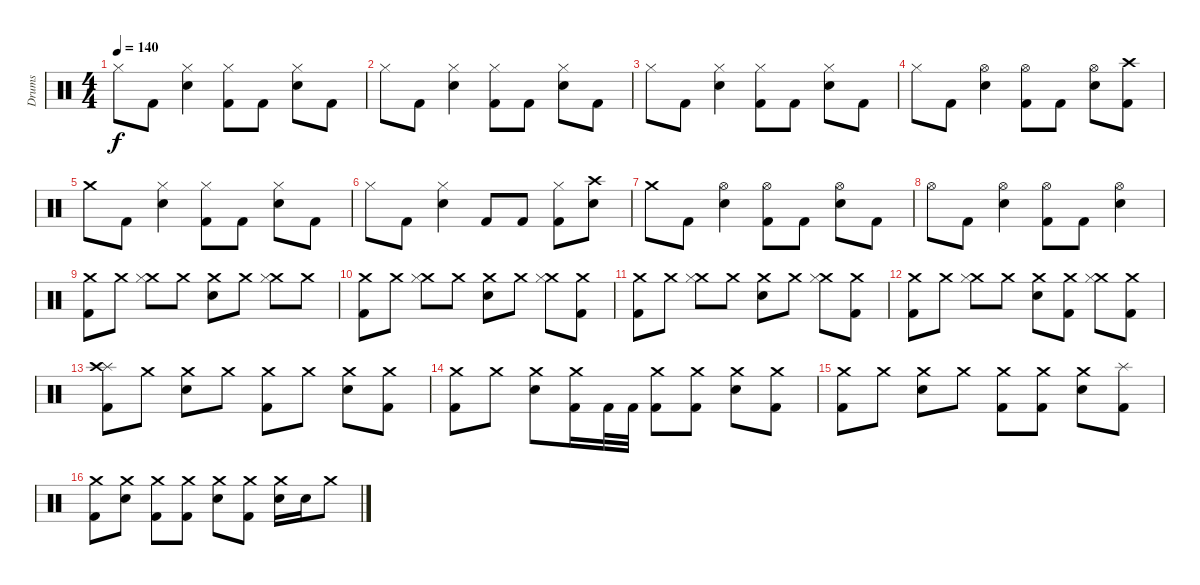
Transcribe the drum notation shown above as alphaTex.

\track ("Drums" "Drums") {instrument percussion}
\staff {score}
\articulation defaults
\ts (4 4)
\tempo 140
\clef neutral
\ks c "Hi-Hat (closed)".8{dy f} "Kick (hit) 2".8
("Hi-Hat (closed)" "Snare (hit) 2").4 ("Hi-Hat (closed)" "Kick (hit) 2").8 "Kick (hit) 2".8 ("Hi-Hat (closed)" "Snare (hit) 2").8 "Kick (hit) 2".8 |
"Hi-Hat (closed)".8 "Kick (hit) 2".8 ("Hi-Hat (closed)" "Snare (hit) 2").4 ("Hi-Hat (closed)" "Kick (hit) 2").8 "Kick (hit) 2".8 ("Hi-Hat (closed)" "Snare (hit) 2").8 "Kick (hit) 2".8 |
"Hi-Hat (closed)".8 "Kick (hit) 2".8 ("Hi-Hat (closed)" "Snare (hit) 2").4 ("Hi-Hat (closed)" "Kick (hit) 2").8 "Kick (hit) 2".8 ("Hi-Hat (closed)" "Snare (hit) 2").8 "Kick (hit) 2".8 |
"Hi-Hat (closed)".8 "Kick (hit) 2".8 ("Hi-Hat (open)" "Snare (hit) 2").4 ("Hi-Hat (open)" "Kick (hit) 2").8 "Kick (hit) 2".8 ("Hi-Hat (open)" "Snare (hit) 2").8 ("Crash high (hit)" "Kick (hit) 2").8 |
"Crash medium (hit)".8 "Kick (hit) 2".8 ("Hi-Hat (closed)" "Snare (hit) 2").4 ("Hi-Hat (closed)" "Kick (hit) 2").8 "Kick (hit) 2".8 ("Hi-Hat (closed)" "Snare (hit) 2").8 "Kick (hit) 2".8 |
"Hi-Hat (closed)".8 "Kick (hit) 2".8 ("Hi-Hat (closed)" "Snare (hit) 2").4 "Kick (hit) 2".8 "Kick (hit) 2".8 ("Hi-Hat (closed)" "Kick (hit) 2").8 ("Crash high (hit)" "Snare (hit) 2").8 |
"Crash medium (hit)".8 "Kick (hit) 2".8 ("Hi-Hat (open)" "Snare (hit) 2").4 ("Hi-Hat (open)" "Kick (hit) 2").8 "Kick (hit) 2".8 ("Hi-Hat (open)" "Snare (hit) 2").8 "Kick (hit) 2".8 |
"Hi-Hat (open)".8 "Kick (hit) 2".8 ("Hi-Hat (open)" "Snare (hit) 2").4 ("Hi-Hat (open)" "Kick (hit) 2").8 "Kick (hit) 2".8 ("Hi-Hat (open)" "Snare (hit) 2").4 |
("Crash medium (hit)" "Kick (hit) 2").8 "Crash medium (hit)".8 ("Crash medium (hit)" "Hi-Hat (closed)").8 "Crash medium (hit)".8 ("Crash medium (hit)" "Snare (hit) 2").8 "Crash medium (hit)".8 ("Crash medium (hit)" "Hi-Hat (closed)").8 "Crash medium (hit)".8 |
("Crash medium (hit)" "Kick (hit) 2").8 "Crash medium (hit)".8 ("Crash medium (hit)" "Hi-Hat (closed)").8 "Crash medium (hit)".8 ("Crash medium (hit)" "Snare (hit) 2").8 "Crash medium (hit)".8 ("Crash medium (hit)" "Hi-Hat (closed)").8 ("Crash medium (hit)" "Kick (hit) 2").8 |
("Crash medium (hit)" "Kick (hit) 2").8 "Crash medium (hit)".8 ("Crash medium (hit)" "Hi-Hat (closed)").8 "Crash medium (hit)".8 ("Crash medium (hit)" "Snare (hit) 2").8 "Crash medium (hit)".8 ("Crash medium (hit)" "Hi-Hat (closed)").8 ("Crash medium (hit)" "Kick (hit) 2").8 |
("Crash medium (hit)" "Kick (hit) 2").8 "Crash medium (hit)".8 ("Crash medium (hit)" "Hi-Hat (closed)").8 "Crash medium (hit)".8 ("Crash medium (hit)" "Snare (hit) 2").8 ("Crash medium (hit)" "Kick (hit) 2").8 ("Crash medium (hit)" "Hi-Hat (closed)").8 ("Crash medium (hit)" "Kick (hit) 2").8 |
("Splash (hit)" "Crash high (hit)" "Kick (hit) 2").8 "Crash medium (hit)".8 ("Crash medium (hit)" "Snare (hit) 2").8 "Crash medium (hit)".8 ("Crash medium (hit)" "Kick (hit) 2").8 "Crash medium (hit)".8 ("Crash medium (hit)" "Snare (hit) 2").8 ("Crash medium (hit)" "Kick (hit) 2").8 |
("Crash medium (hit)" "Kick (hit) 2").8 "Crash medium (hit)".8 ("Crash medium (hit)" "Snare (hit) 2").8 ("Crash medium (hit)" "Kick (hit) 2").16 "Kick (hit) 2".32 "Kick (hit) 2".32 ("Crash medium (hit)" "Kick (hit) 2").8 ("Crash medium (hit)" "Kick (hit) 2").8 ("Crash medium (hit)" "Snare (hit) 2").8 ("Crash medium (hit)" "Kick (hit) 2").8 |
("Crash medium (hit)" "Kick (hit) 2").8 "Crash medium (hit)".8 ("Crash medium (hit)" "Snare (hit) 2").8 "Crash medium (hit)".8 ("Crash medium (hit)" "Kick (hit) 2").8 ("Crash medium (hit)" "Kick (hit) 2").8 ("Crash medium (hit)" "Snare (hit) 2").8 ("Splash (hit)" "Kick (hit) 2").8 |
("Crash medium (hit)" "Kick (hit) 2").8 ("Crash medium (hit)" "Snare (hit) 2").8 ("Crash medium (hit)" "Kick (hit) 2").8 ("Crash medium (hit)" "Kick (hit) 2").8 ("Crash medium (hit)" "Snare (hit) 2").8 ("Crash medium (hit)" "Kick (hit) 2").8 ("Crash medium (hit)" "Snare (hit) 2").16 "Snare (hit) 2".16 "Crash medium (hit)".8
